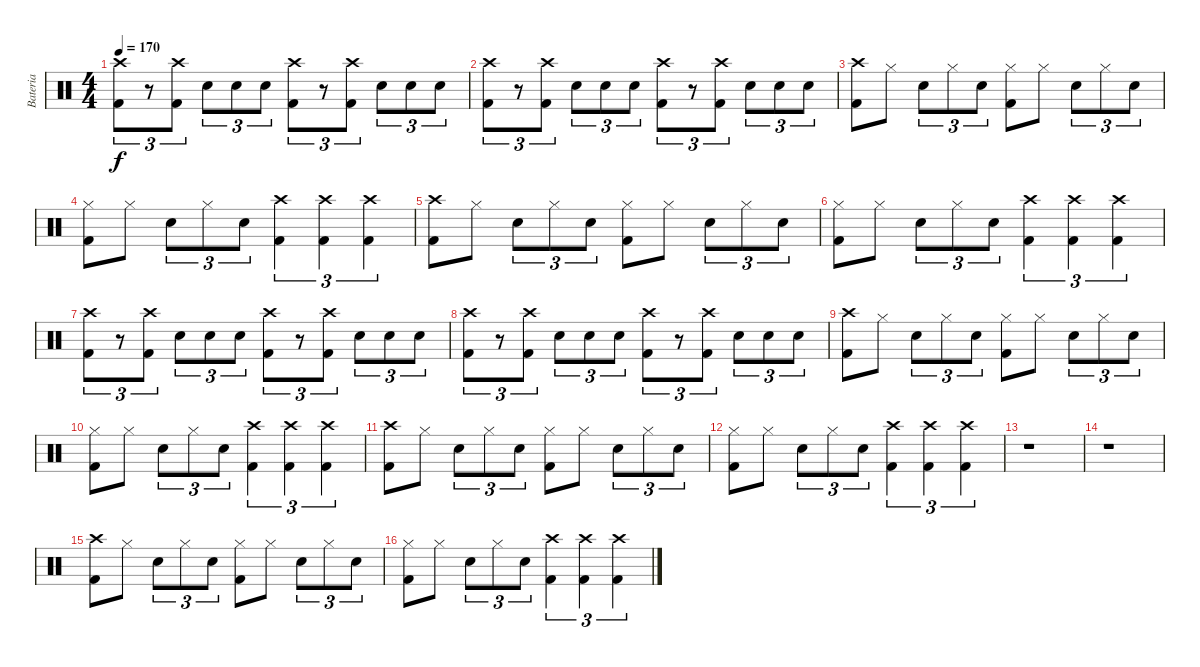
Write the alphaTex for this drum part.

\track ("Bateria" "Bateria") {instrument percussion}
\staff {score}
\articulation defaults
\ts (4 4)
\tempo 170
\clef neutral
\ks c
("Crash high (hit)" "Kick (hit) 2").8{tu (3 2) dy f} r.8{tu (3 2)} ("Crash high (hit)" "Kick (hit) 2").8{tu (3 2)} "Snare (hit) 2".8{tu (3 2)} "Snare (hit) 2".8{tu (3 2)} "Snare (hit) 2".8{tu (3 2)} ("Crash high (hit)" "Kick (hit) 2").8{tu (3 2)} r.8{tu (3 2)} ("Crash high (hit)" "Kick (hit) 2").8{tu (3 2)} "Snare (hit) 2".8{tu (3 2)} "Snare (hit) 2".8{tu (3 2)} "Snare (hit) 2".8{tu (3 2)} |
("Crash high (hit)" "Kick (hit) 2").8{tu (3 2)} r.8{tu (3 2)} ("Crash high (hit)" "Kick (hit) 2").8{tu (3 2)} "Snare (hit) 2".8{tu (3 2)} "Snare (hit) 2".8{tu (3 2)} "Snare (hit) 2".8{tu (3 2)} ("Crash high (hit)" "Kick (hit) 2").8{tu (3 2)} r.8{tu (3 2)} ("Crash high (hit)" "Kick (hit) 2").8{tu (3 2)} "Snare (hit) 2".8{tu (3 2)} "Snare (hit) 2".8{tu (3 2)} "Snare (hit) 2".8{tu (3 2)} |
("Crash high (hit)" "Kick (hit) 2").8 "Hi-Hat (closed)".8 "Snare (hit) 2".8{tu (3 2)} "Hi-Hat (closed)".8{tu (3 2)} "Snare (hit) 2".8{tu (3 2)} ("Hi-Hat (closed)" "Kick (hit) 2").8 "Hi-Hat (closed)".8 "Snare (hit) 2".8{tu (3 2)} "Hi-Hat (closed)".8{tu (3 2)} "Snare (hit) 2".8{tu (3 2)} |
("Hi-Hat (closed)" "Kick (hit) 2").8 "Hi-Hat (closed)".8 "Snare (hit) 2".8{tu (3 2)} "Hi-Hat (closed)".8{tu (3 2)} "Snare (hit) 2".8{tu (3 2)} ("Crash high (hit)" "Kick (hit) 2").4{tu (3 2)} ("Crash high (hit)" "Kick (hit) 2").4{tu (3 2)} ("Crash high (hit)" "Kick (hit) 2").4{tu (3 2)} |
("Crash high (hit)" "Kick (hit) 2").8 "Hi-Hat (closed)".8 "Snare (hit) 2".8{tu (3 2)} "Hi-Hat (closed)".8{tu (3 2)} "Snare (hit) 2".8{tu (3 2)} ("Hi-Hat (closed)" "Kick (hit) 2").8 "Hi-Hat (closed)".8 "Snare (hit) 2".8{tu (3 2)} "Hi-Hat (closed)".8{tu (3 2)} "Snare (hit) 2".8{tu (3 2)} |
("Hi-Hat (closed)" "Kick (hit) 2").8 "Hi-Hat (closed)".8 "Snare (hit) 2".8{tu (3 2)} "Hi-Hat (closed)".8{tu (3 2)} "Snare (hit) 2".8{tu (3 2)} ("Crash high (hit)" "Kick (hit) 2").4{tu (3 2)} ("Crash high (hit)" "Kick (hit) 2").4{tu (3 2)} ("Crash high (hit)" "Kick (hit) 2").4{tu (3 2)} |
("Crash high (hit)" "Kick (hit) 2").8{tu (3 2)} r.8{tu (3 2)} ("Crash high (hit)" "Kick (hit) 2").8{tu (3 2)} "Snare (hit) 2".8{tu (3 2)} "Snare (hit) 2".8{tu (3 2)} "Snare (hit) 2".8{tu (3 2)} ("Crash high (hit)" "Kick (hit) 2").8{tu (3 2)} r.8{tu (3 2)} ("Crash high (hit)" "Kick (hit) 2").8{tu (3 2)} "Snare (hit) 2".8{tu (3 2)} "Snare (hit) 2".8{tu (3 2)} "Snare (hit) 2".8{tu (3 2)} |
("Crash high (hit)" "Kick (hit) 2").8{tu (3 2)} r.8{tu (3 2)} ("Crash high (hit)" "Kick (hit) 2").8{tu (3 2)} "Snare (hit) 2".8{tu (3 2)} "Snare (hit) 2".8{tu (3 2)} "Snare (hit) 2".8{tu (3 2)} ("Crash high (hit)" "Kick (hit) 2").8{tu (3 2)} r.8{tu (3 2)} ("Crash high (hit)" "Kick (hit) 2").8{tu (3 2)} "Snare (hit) 2".8{tu (3 2)} "Snare (hit) 2".8{tu (3 2)} "Snare (hit) 2".8{tu (3 2)} |
("Crash high (hit)" "Kick (hit) 2").8 "Hi-Hat (closed)".8 "Snare (hit) 2".8{tu (3 2)} "Hi-Hat (closed)".8{tu (3 2)} "Snare (hit) 2".8{tu (3 2)} ("Hi-Hat (closed)" "Kick (hit) 2").8 "Hi-Hat (closed)".8 "Snare (hit) 2".8{tu (3 2)} "Hi-Hat (closed)".8{tu (3 2)} "Snare (hit) 2".8{tu (3 2)} |
("Hi-Hat (closed)" "Kick (hit) 2").8 "Hi-Hat (closed)".8 "Snare (hit) 2".8{tu (3 2)} "Hi-Hat (closed)".8{tu (3 2)} "Snare (hit) 2".8{tu (3 2)} ("Crash high (hit)" "Kick (hit) 2").4{tu (3 2)} ("Crash high (hit)" "Kick (hit) 2").4{tu (3 2)} ("Crash high (hit)" "Kick (hit) 2").4{tu (3 2)} |
("Crash high (hit)" "Kick (hit) 2").8 "Hi-Hat (closed)".8 "Snare (hit) 2".8{tu (3 2)} "Hi-Hat (closed)".8{tu (3 2)} "Snare (hit) 2".8{tu (3 2)} ("Hi-Hat (closed)" "Kick (hit) 2").8 "Hi-Hat (closed)".8 "Snare (hit) 2".8{tu (3 2)} "Hi-Hat (closed)".8{tu (3 2)} "Snare (hit) 2".8{tu (3 2)} |
("Hi-Hat (closed)" "Kick (hit) 2").8 "Hi-Hat (closed)".8 "Snare (hit) 2".8{tu (3 2)} "Hi-Hat (closed)".8{tu (3 2)} "Snare (hit) 2".8{tu (3 2)} ("Crash high (hit)" "Kick (hit) 2").4{tu (3 2)} ("Crash high (hit)" "Kick (hit) 2").4{tu (3 2)} ("Crash high (hit)" "Kick (hit) 2").4{tu (3 2)} |
r.1 |
r.1 |
("Crash high (hit)" "Kick (hit) 2").8 "Hi-Hat (closed)".8 "Snare (hit) 2".8{tu (3 2)} "Hi-Hat (closed)".8{tu (3 2)} "Snare (hit) 2".8{tu (3 2)} ("Hi-Hat (closed)" "Kick (hit) 2").8 "Hi-Hat (closed)".8 "Snare (hit) 2".8{tu (3 2)} "Hi-Hat (closed)".8{tu (3 2)} "Snare (hit) 2".8{tu (3 2)} |
("Hi-Hat (closed)" "Kick (hit) 2").8 "Hi-Hat (closed)".8 "Snare (hit) 2".8{tu (3 2)} "Hi-Hat (closed)".8{tu (3 2)} "Snare (hit) 2".8{tu (3 2)} ("Crash high (hit)" "Kick (hit) 2").4{tu (3 2)} ("Crash high (hit)" "Kick (hit) 2").4{tu (3 2)} ("Crash high (hit)" "Kick (hit) 2").4{tu (3 2)}
